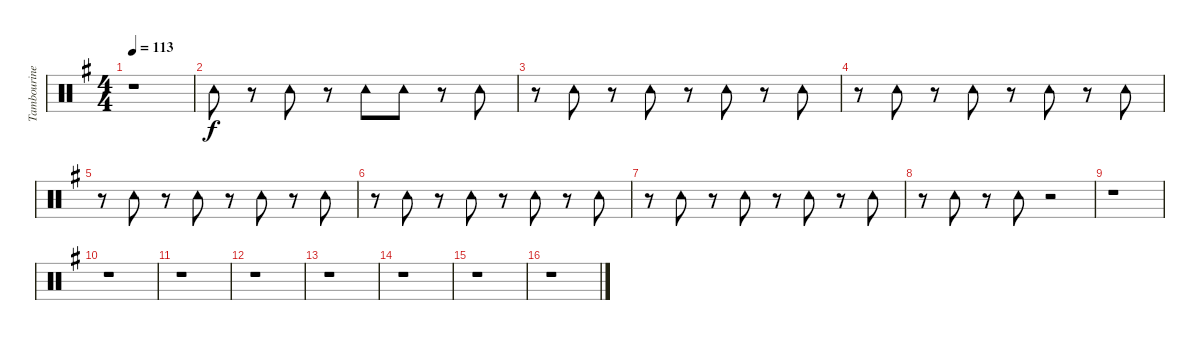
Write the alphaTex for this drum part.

\track ("Tambourine" "Tambourine") {instrument percussion}
\staff {score}
\articulation defaults
\ts (4 4)
\tempo 113
\clef neutral
\ks eminor
r.1{dy f} |
"Tambourine (hit)".8 r.8 "Tambourine (hit)".8 r.8 "Tambourine (hit)".8 "Tambourine (hit)".8 r.8 "Tambourine (hit)".8 |
r.8 "Tambourine (hit)".8 r.8 "Tambourine (hit)".8 r.8 "Tambourine (hit)".8 r.8 "Tambourine (hit)".8 |
r.8 "Tambourine (hit)".8 r.8 "Tambourine (hit)".8 r.8 "Tambourine (hit)".8 r.8 "Tambourine (hit)".8 |
r.8 "Tambourine (hit)".8 r.8 "Tambourine (hit)".8 r.8 "Tambourine (hit)".8 r.8 "Tambourine (hit)".8 |
r.8 "Tambourine (hit)".8 r.8 "Tambourine (hit)".8 r.8 "Tambourine (hit)".8 r.8 "Tambourine (hit)".8 |
r.8 "Tambourine (hit)".8 r.8 "Tambourine (hit)".8 r.8 "Tambourine (hit)".8 r.8 "Tambourine (hit)".8 |
r.8 "Tambourine (hit)".8 r.8 "Tambourine (hit)".8 r.2 |
r.1 |
r.1 |
r.1 |
r.1 |
r.1 |
r.1 |
r.1 |
r.1
